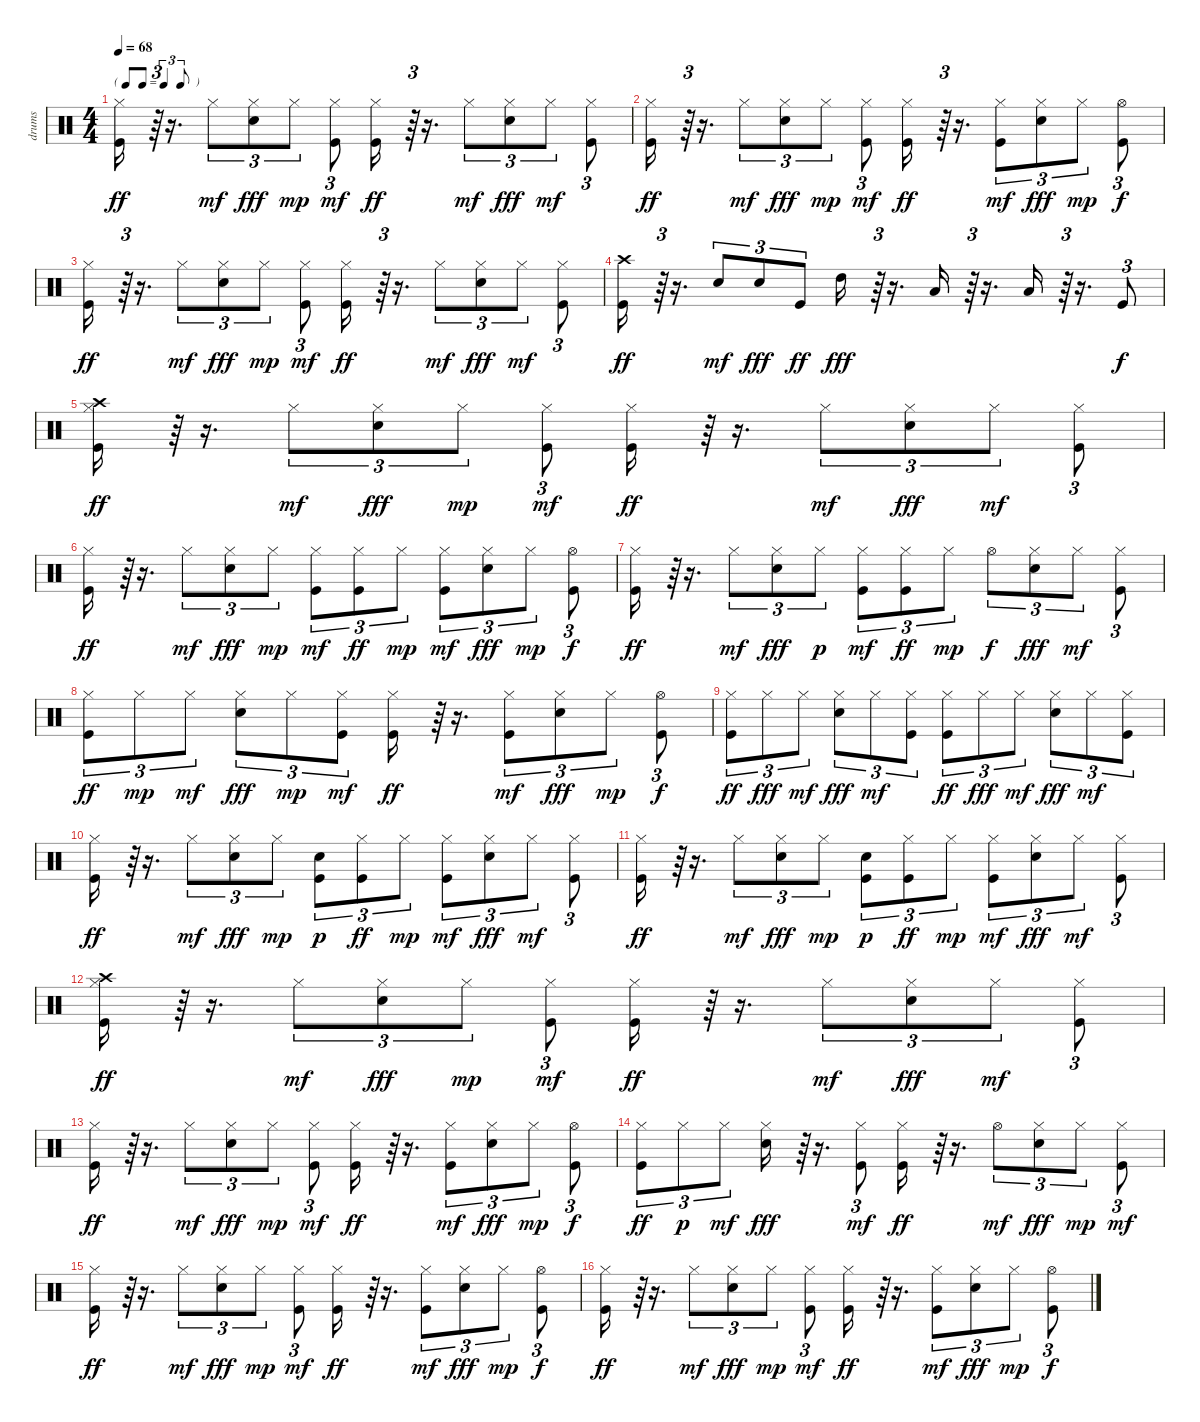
\track ("drums" "drums") {instrument percussion}
\staff {score}
\articulation defaults
\ts (4 4)
\tf triplet8th
\tempo 68
\clef neutral
\ks c
("Kick (hit)" "Hi-Hat (closed)").16{dy ff} r.64{tu (3 2)} r.16{d} "Hi-Hat (closed)".8{tu (3 2) dy mf} ("Snare (hit) 2" "Hi-Hat (closed)").8{tu (3 2) dy fff} "Hi-Hat (closed)".8{tu (3 2) dy mp} ("Kick (hit)" "Hi-Hat (closed)").8{tu (3 2) dy mf} ("Kick (hit)" "Hi-Hat (closed)").16{dy ff} r.64{tu (3 2)} r.16{d} "Hi-Hat (closed)".8{tu (3 2) dy mf} ("Snare (hit) 2" "Hi-Hat (closed)").8{tu (3 2) dy fff} "Hi-Hat (closed)".8{tu (3 2) dy mf} ("Kick (hit)" "Hi-Hat (closed)").8{tu (3 2)} |
("Kick (hit)" "Hi-Hat (closed)").16{dy ff} r.64{tu (3 2)} r.16{d} "Hi-Hat (closed)".8{tu (3 2) dy mf} ("Snare (hit) 2" "Hi-Hat (closed)").8{tu (3 2) dy fff} "Hi-Hat (closed)".8{tu (3 2) dy mp} ("Kick (hit)" "Hi-Hat (closed)").8{tu (3 2) dy mf} ("Kick (hit)" "Hi-Hat (closed)").16{dy ff} r.64{tu (3 2)} r.16{d} ("Kick (hit)" "Hi-Hat (closed)").8{tu (3 2) dy mf} ("Snare (hit) 2" "Hi-Hat (closed)").8{tu (3 2) dy fff} "Hi-Hat (closed)".8{tu (3 2) dy mp} ("Kick (hit)" "Hi-Hat (open)").8{tu (3 2) dy f} |
("Kick (hit)" "Hi-Hat (closed)").16{dy ff} r.64{tu (3 2)} r.16{d} "Hi-Hat (closed)".8{tu (3 2) dy mf} ("Snare (hit) 2" "Hi-Hat (closed)").8{tu (3 2) dy fff} "Hi-Hat (closed)".8{tu (3 2) dy mp} ("Kick (hit)" "Hi-Hat (closed)").8{tu (3 2) dy mf} ("Kick (hit)" "Hi-Hat (closed)").16{dy ff} r.64{tu (3 2)} r.16{d} "Hi-Hat (closed)".8{tu (3 2) dy mf} ("Snare (hit) 2" "Hi-Hat (closed)").8{tu (3 2) dy fff} "Hi-Hat (closed)".8{tu (3 2) dy mf} ("Kick (hit)" "Hi-Hat (closed)").8{tu (3 2)} |
("Kick (hit)" "Crash high (hit)").16{dy ff} r.64{tu (3 2)} r.16{d} "Snare (hit) 2".8{tu (3 2) dy mf} "Snare (hit) 2".8{tu (3 2) dy fff} "Kick (hit)".8{tu (3 2) dy ff} "High Tom (hit)".16{dy fff} r.64{tu (3 2)} r.16{d} "Low Tom (hit)".16 r.64{tu (3 2)} r.16{d} "Low Floor Tom (hit)".16 r.64{tu (3 2)} r.16{d} "Kick (hit)".8{tu (3 2) dy f} |
("Kick (hit)" "Hi-Hat (closed)" "Crash high (hit)").16{dy ff} r.64{tu (3 2)} r.16{d} "Hi-Hat (closed)".8{tu (3 2) dy mf} ("Snare (hit) 2" "Hi-Hat (closed)").8{tu (3 2) dy fff} "Hi-Hat (closed)".8{tu (3 2) dy mp} ("Kick (hit)" "Hi-Hat (closed)").8{tu (3 2) dy mf} ("Kick (hit)" "Hi-Hat (closed)").16{dy ff} r.64{tu (3 2)} r.16{d} "Hi-Hat (closed)".8{tu (3 2) dy mf} ("Snare (hit) 2" "Hi-Hat (closed)").8{tu (3 2) dy fff} "Hi-Hat (closed)".8{tu (3 2) dy mf} ("Kick (hit)" "Hi-Hat (closed)").8{tu (3 2)} |
("Kick (hit)" "Hi-Hat (closed)").16{dy ff} r.64{tu (3 2)} r.16{d} "Hi-Hat (closed)".8{tu (3 2) dy mf} ("Snare (hit) 2" "Hi-Hat (closed)").8{tu (3 2) dy fff} "Hi-Hat (closed)".8{tu (3 2) dy mp} ("Kick (hit)" "Hi-Hat (closed)").8{tu (3 2) dy mf} ("Kick (hit)" "Hi-Hat (closed)").8{tu (3 2) dy ff} "Hi-Hat (closed)".8{tu (3 2) dy mp} ("Kick (hit)" "Hi-Hat (closed)").8{tu (3 2) dy mf} ("Snare (hit) 2" "Hi-Hat (closed)").8{tu (3 2) dy fff} "Hi-Hat (closed)".8{tu (3 2) dy mp} ("Kick (hit)" "Hi-Hat (open)").8{tu (3 2) dy f} |
("Kick (hit)" "Hi-Hat (closed)").16{dy ff} r.64{tu (3 2)} r.16{d} "Hi-Hat (closed)".8{tu (3 2) dy mf} ("Snare (hit) 2" "Hi-Hat (closed)").8{tu (3 2) dy fff} "Hi-Hat (closed)".8{tu (3 2) dy p} ("Kick (hit)" "Hi-Hat (closed)").8{tu (3 2) dy mf} ("Kick (hit)" "Hi-Hat (closed)").8{tu (3 2) dy ff} "Hi-Hat (closed)".8{tu (3 2) dy mp} "Hi-Hat (open)".8{tu (3 2) dy f} ("Snare (hit) 2" "Hi-Hat (closed)").8{tu (3 2) dy fff} "Hi-Hat (closed)".8{tu (3 2) dy mf} ("Kick (hit)" "Hi-Hat (closed)").8{tu (3 2)} |
("Kick (hit)" "Hi-Hat (closed)").8{tu (3 2) dy ff} "Hi-Hat (closed)".8{tu (3 2) dy mp} "Hi-Hat (closed)".8{tu (3 2) dy mf} ("Snare (hit) 2" "Hi-Hat (closed)").8{tu (3 2) dy fff} "Hi-Hat (closed)".8{tu (3 2) dy mp} ("Kick (hit)" "Hi-Hat (closed)").8{tu (3 2) dy mf} ("Kick (hit)" "Hi-Hat (closed)").16{dy ff} r.64{tu (3 2)} r.16{d} ("Kick (hit)" "Hi-Hat (closed)").8{tu (3 2) dy mf} ("Snare (hit) 2" "Hi-Hat (closed)").8{tu (3 2) dy fff} "Hi-Hat (closed)".8{tu (3 2) dy mp} ("Kick (hit)" "Hi-Hat (open)").8{tu (3 2) dy f} |
("Kick (hit)" "Hi-Hat (closed)").8{tu (3 2) dy ff} "Hi-Hat (closed)".8{tu (3 2) dy fff} "Hi-Hat (closed)".8{tu (3 2) dy mf} ("Snare (hit) 2" "Hi-Hat (closed)").8{tu (3 2) dy fff} "Hi-Hat (closed)".8{tu (3 2) dy mf} ("Kick (hit)" "Hi-Hat (closed)").8{tu (3 2)} ("Kick (hit)" "Hi-Hat (closed)").8{tu (3 2) dy ff} "Hi-Hat (closed)".8{tu (3 2) dy fff} "Hi-Hat (closed)".8{tu (3 2) dy mf} ("Snare (hit) 2" "Hi-Hat (closed)").8{tu (3 2) dy fff} "Hi-Hat (closed)".8{tu (3 2) dy mf} ("Kick (hit)" "Hi-Hat (closed)").8{tu (3 2)} |
("Kick (hit)" "Hi-Hat (closed)").16{dy ff} r.64{tu (3 2)} r.16{d} "Hi-Hat (closed)".8{tu (3 2) dy mf} ("Snare (hit) 2" "Hi-Hat (closed)").8{tu (3 2) dy fff} "Hi-Hat (closed)".8{tu (3 2) dy mp} ("Kick (hit)" "Snare (hit) 2").8{tu (3 2) dy p} ("Kick (hit)" "Hi-Hat (closed)").8{tu (3 2) dy ff} "Hi-Hat (closed)".8{tu (3 2) dy mp} ("Kick (hit)" "Hi-Hat (closed)").8{tu (3 2) dy mf} ("Snare (hit) 2" "Hi-Hat (closed)").8{tu (3 2) dy fff} "Hi-Hat (closed)".8{tu (3 2) dy mf} ("Kick (hit)" "Hi-Hat (closed)").8{tu (3 2)} |
("Kick (hit)" "Hi-Hat (closed)").16{dy ff} r.64{tu (3 2)} r.16{d} "Hi-Hat (closed)".8{tu (3 2) dy mf} ("Snare (hit) 2" "Hi-Hat (closed)").8{tu (3 2) dy fff} "Hi-Hat (closed)".8{tu (3 2) dy mp} ("Kick (hit)" "Snare (hit) 2").8{tu (3 2) dy p} ("Kick (hit)" "Hi-Hat (closed)").8{tu (3 2) dy ff} "Hi-Hat (closed)".8{tu (3 2) dy mp} ("Kick (hit)" "Hi-Hat (closed)").8{tu (3 2) dy mf} ("Snare (hit) 2" "Hi-Hat (closed)").8{tu (3 2) dy fff} "Hi-Hat (closed)".8{tu (3 2) dy mf} ("Kick (hit)" "Hi-Hat (closed)").8{tu (3 2)} |
("Kick (hit)" "Hi-Hat (closed)" "Crash high (hit)").16{dy ff} r.64{tu (3 2)} r.16{d} "Hi-Hat (closed)".8{tu (3 2) dy mf} ("Snare (hit) 2" "Hi-Hat (closed)").8{tu (3 2) dy fff} "Hi-Hat (closed)".8{tu (3 2) dy mp} ("Kick (hit)" "Hi-Hat (closed)").8{tu (3 2) dy mf} ("Kick (hit)" "Hi-Hat (closed)").16{dy ff} r.64{tu (3 2)} r.16{d} "Hi-Hat (closed)".8{tu (3 2) dy mf} ("Snare (hit) 2" "Hi-Hat (closed)").8{tu (3 2) dy fff} "Hi-Hat (closed)".8{tu (3 2) dy mf} ("Kick (hit)" "Hi-Hat (closed)").8{tu (3 2)} |
("Kick (hit)" "Hi-Hat (closed)").16{dy ff} r.64{tu (3 2)} r.16{d} "Hi-Hat (closed)".8{tu (3 2) dy mf} ("Snare (hit) 2" "Hi-Hat (closed)").8{tu (3 2) dy fff} "Hi-Hat (closed)".8{tu (3 2) dy mp} ("Kick (hit)" "Hi-Hat (closed)").8{tu (3 2) dy mf} ("Kick (hit)" "Hi-Hat (closed)").16{dy ff} r.64{tu (3 2)} r.16{d} ("Kick (hit)" "Hi-Hat (closed)").8{tu (3 2) dy mf} ("Snare (hit) 2" "Hi-Hat (closed)").8{tu (3 2) dy fff} "Hi-Hat (closed)".8{tu (3 2) dy mp} ("Kick (hit)" "Hi-Hat (open)").8{tu (3 2) dy f} |
("Kick (hit)" "Hi-Hat (closed)").8{tu (3 2) dy ff} "Hi-Hat (closed)".8{tu (3 2) dy p} "Hi-Hat (closed)".8{tu (3 2) dy mf} ("Snare (hit) 2" "Hi-Hat (closed)").16{dy fff} r.64{tu (3 2)} r.16{d} ("Kick (hit)" "Hi-Hat (closed)").8{tu (3 2) dy mf} ("Kick (hit)" "Hi-Hat (closed)").16{dy ff} r.64{tu (3 2)} r.16{d} "Hi-Hat (open)".8{tu (3 2) dy mf} ("Snare (hit) 2" "Hi-Hat (closed)").8{tu (3 2) dy fff} "Hi-Hat (closed)".8{tu (3 2) dy mp} ("Kick (hit)" "Hi-Hat (closed)").8{tu (3 2) dy mf} |
("Kick (hit)" "Hi-Hat (closed)").16{dy ff} r.64{tu (3 2)} r.16{d} "Hi-Hat (closed)".8{tu (3 2) dy mf} ("Snare (hit) 2" "Hi-Hat (closed)").8{tu (3 2) dy fff} "Hi-Hat (closed)".8{tu (3 2) dy mp} ("Kick (hit)" "Hi-Hat (closed)").8{tu (3 2) dy mf} ("Kick (hit)" "Hi-Hat (closed)").16{dy ff} r.64{tu (3 2)} r.16{d} ("Kick (hit)" "Hi-Hat (closed)").8{tu (3 2) dy mf} ("Snare (hit) 2" "Hi-Hat (closed)").8{tu (3 2) dy fff} "Hi-Hat (closed)".8{tu (3 2) dy mp} ("Kick (hit)" "Hi-Hat (open)").8{tu (3 2) dy f} |
("Kick (hit)" "Hi-Hat (closed)").16{dy ff} r.64{tu (3 2)} r.16{d} "Hi-Hat (closed)".8{tu (3 2) dy mf} ("Snare (hit) 2" "Hi-Hat (closed)").8{tu (3 2) dy fff} "Hi-Hat (closed)".8{tu (3 2) dy mp} ("Kick (hit)" "Hi-Hat (closed)").8{tu (3 2) dy mf} ("Kick (hit)" "Hi-Hat (closed)").16{dy ff} r.64{tu (3 2)} r.16{d} ("Kick (hit)" "Hi-Hat (closed)").8{tu (3 2) dy mf} ("Snare (hit) 2" "Hi-Hat (closed)").8{tu (3 2) dy fff} "Hi-Hat (closed)".8{tu (3 2) dy mp} ("Kick (hit)" "Hi-Hat (open)").8{tu (3 2) dy f}
